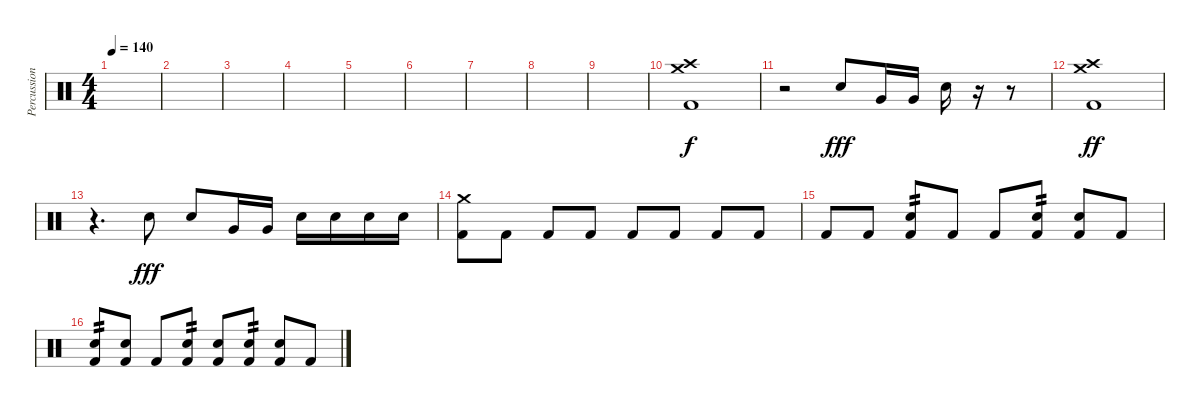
\track ("Percussion" "Percussion") {instrument percussion}
\staff {score}
\articulation defaults
\ts (4 4)
\tempo 140
\clef neutral
\ks c
|
|
|
|
|
|
|
|
|
("Crash medium (hit)" "Crash high (hit)" "Kick (hit) 2").1 |
r.2 "Electric Snare (hit)".8{dy fff} "Very Low Tom (hit)".16 "Very Low Tom (hit)".16 "Electric Snare (hit)".16 r.16 r.8 |
("Crash medium (hit)" "Crash high (hit)" "Kick (hit) 2").1{dy ff} |
r.4{d} "Electric Snare (hit)".8{dy fff} "Electric Snare (hit)".8 "Very Low Tom (hit)".16 "Very Low Tom (hit)".16 "Electric Snare (hit)".16 "Electric Snare (hit)".16 "Electric Snare (hit)".16 "Electric Snare (hit)".16 |
("Crash medium (hit)" "Kick (hit) 2").8 "Kick (hit) 2".8 "Kick (hit) 2".8 "Kick (hit) 2".8 "Kick (hit) 2".8 "Kick (hit) 2".8 "Kick (hit) 2".8 "Kick (hit) 2".8 |
"Kick (hit) 2".8 "Kick (hit) 2".8 ("Electric Snare (hit)" "Kick (hit) 2").8{tp 2} "Kick (hit) 2".8 "Kick (hit) 2".8 ("Electric Snare (hit)" "Kick (hit) 2").8{tp 2} ("Electric Snare (hit)" "Kick (hit) 2").8 "Kick (hit) 2".8 |
("Electric Snare (hit)" "Kick (hit) 2").8{tp 2} ("Electric Snare (hit)" "Kick (hit) 2").8 "Kick (hit) 2".8 ("Electric Snare (hit)" "Kick (hit) 2").8{tp 2} ("Electric Snare (hit)" "Kick (hit) 2").8 ("Electric Snare (hit)" "Kick (hit) 2").8{tp 2} ("Electric Snare (hit)" "Kick (hit) 2").8 "Kick (hit) 2".8
